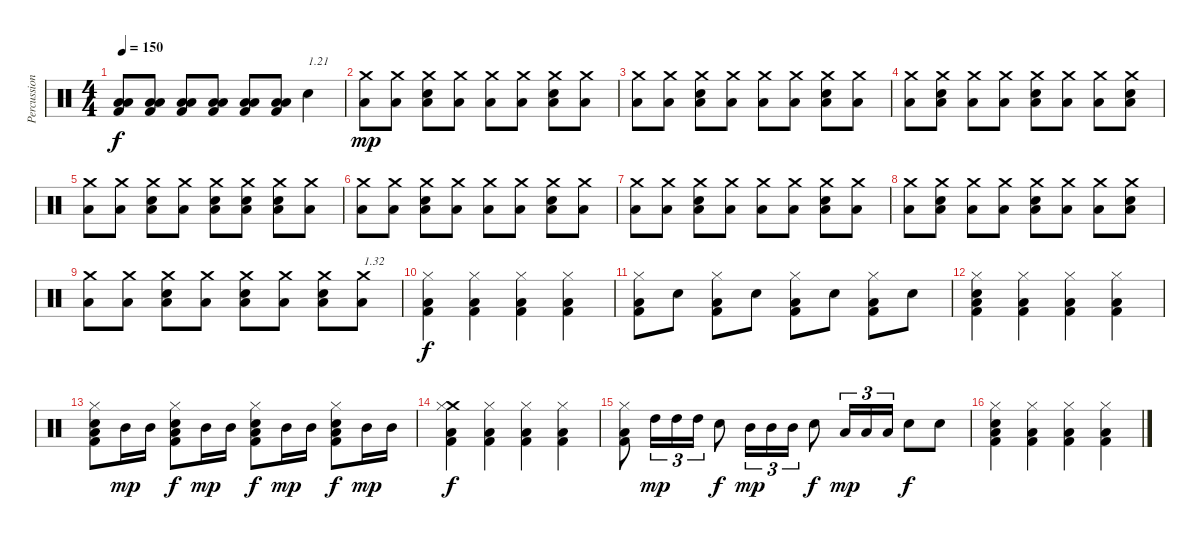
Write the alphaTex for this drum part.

\track ("Percussions" "Percussion") {instrument percussion}
\staff {score}
\articulation defaults
\ts (4 4)
\tempo 150
\clef neutral
\ks c
("Kick (hit) 2" "Low Floor Tom (hit)" "Low Tom (hit)").8{dy f} ("Kick (hit) 2" "Low Floor Tom (hit)" "Low Tom (hit)").8 ("Kick (hit) 2" "Low Floor Tom (hit)" "Low Tom (hit)").8 ("Kick (hit) 2" "Low Floor Tom (hit)" "Low Tom (hit)").8 ("Kick (hit) 2" "Low Floor Tom (hit)" "Low Tom (hit)").8 ("Kick (hit) 2" "Low Floor Tom (hit)" "Low Tom (hit)").8 "Snare (hit) 2".4{txt "1.21"} |
("Low Floor Tom (hit)" "Crash medium (hit)").8{dy mp} ("Low Floor Tom (hit)" "Crash medium (hit)").8 ("Low Floor Tom (hit)" "Snare (hit) 2" "Crash medium (hit)").8 ("Low Floor Tom (hit)" "Crash medium (hit)").8 ("Low Floor Tom (hit)" "Crash medium (hit)").8 ("Low Floor Tom (hit)" "Crash medium (hit)").8 ("Low Floor Tom (hit)" "Snare (hit) 2" "Crash medium (hit)").8 ("Low Floor Tom (hit)" "Crash medium (hit)").8 |
("Low Floor Tom (hit)" "Crash medium (hit)").8 ("Low Floor Tom (hit)" "Crash medium (hit)").8 ("Low Floor Tom (hit)" "Snare (hit) 2" "Crash medium (hit)").8 ("Low Floor Tom (hit)" "Crash medium (hit)").8 ("Low Floor Tom (hit)" "Crash medium (hit)").8 ("Low Floor Tom (hit)" "Crash medium (hit)").8 ("Low Floor Tom (hit)" "Snare (hit) 2" "Crash medium (hit)").8 ("Low Floor Tom (hit)" "Crash medium (hit)").8 |
("Low Floor Tom (hit)" "Crash medium (hit)").8 ("Low Floor Tom (hit)" "Snare (hit) 2" "Crash medium (hit)").8 ("Low Floor Tom (hit)" "Crash medium (hit)").8 ("Low Floor Tom (hit)" "Crash medium (hit)").8 ("Low Floor Tom (hit)" "Snare (hit) 2" "Crash medium (hit)").8 ("Low Floor Tom (hit)" "Crash medium (hit)").8 ("Low Floor Tom (hit)" "Crash medium (hit)").8 ("Low Floor Tom (hit)" "Snare (hit) 2" "Crash medium (hit)").8 |
("Low Floor Tom (hit)" "Crash medium (hit)").8 ("Low Floor Tom (hit)" "Crash medium (hit)").8 ("Low Floor Tom (hit)" "Snare (hit) 2" "Crash medium (hit)").8 ("Low Floor Tom (hit)" "Crash medium (hit)").8 ("Low Floor Tom (hit)" "Snare (hit) 2" "Crash medium (hit)").8 ("Low Floor Tom (hit)" "Snare (hit) 2" "Crash medium (hit)").8 ("Low Floor Tom (hit)" "Snare (hit) 2" "Crash medium (hit)").8 ("Low Floor Tom (hit)" "Crash medium (hit)").8 |
("Low Floor Tom (hit)" "Crash medium (hit)").8 ("Low Floor Tom (hit)" "Crash medium (hit)").8 ("Low Floor Tom (hit)" "Snare (hit) 2" "Crash medium (hit)").8 ("Low Floor Tom (hit)" "Crash medium (hit)").8 ("Low Floor Tom (hit)" "Crash medium (hit)").8 ("Low Floor Tom (hit)" "Crash medium (hit)").8 ("Low Floor Tom (hit)" "Snare (hit) 2" "Crash medium (hit)").8 ("Low Floor Tom (hit)" "Crash medium (hit)").8 |
("Low Floor Tom (hit)" "Crash medium (hit)").8 ("Low Floor Tom (hit)" "Crash medium (hit)").8 ("Low Floor Tom (hit)" "Snare (hit) 2" "Crash medium (hit)").8 ("Low Floor Tom (hit)" "Crash medium (hit)").8 ("Low Floor Tom (hit)" "Crash medium (hit)").8 ("Low Floor Tom (hit)" "Crash medium (hit)").8 ("Low Floor Tom (hit)" "Snare (hit) 2" "Crash medium (hit)").8 ("Low Floor Tom (hit)" "Crash medium (hit)").8 |
("Low Floor Tom (hit)" "Crash medium (hit)").8 ("Low Floor Tom (hit)" "Snare (hit) 2" "Crash medium (hit)").8 ("Low Floor Tom (hit)" "Crash medium (hit)").8 ("Low Floor Tom (hit)" "Crash medium (hit)").8 ("Low Floor Tom (hit)" "Snare (hit) 2" "Crash medium (hit)").8 ("Low Floor Tom (hit)" "Crash medium (hit)").8 ("Low Floor Tom (hit)" "Crash medium (hit)").8 ("Low Floor Tom (hit)" "Snare (hit) 2" "Crash medium (hit)").8 |
("Low Floor Tom (hit)" "Crash medium (hit)").8 ("Low Floor Tom (hit)" "Crash medium (hit)").8 ("Low Floor Tom (hit)" "Snare (hit) 2" "Crash medium (hit)").8 ("Low Floor Tom (hit)" "Crash medium (hit)").8 ("Low Floor Tom (hit)" "Snare (hit) 2" "Crash medium (hit)").8 ("Low Floor Tom (hit)" "Crash medium (hit)").8 ("Low Floor Tom (hit)" "Snare (hit) 2" "Crash medium (hit)").8 ("Low Floor Tom (hit)" "Crash medium (hit)").8{txt "1.32"} |
("Kick (hit) 2" "Low Floor Tom (hit)" "Hi-Hat (closed)").4{dy f} ("Kick (hit) 2" "Low Floor Tom (hit)" "Hi-Hat (closed)").4 ("Kick (hit) 2" "Low Floor Tom (hit)" "Hi-Hat (closed)").4 ("Kick (hit) 2" "Low Floor Tom (hit)" "Hi-Hat (closed)").4 |
("Kick (hit) 2" "Low Floor Tom (hit)" "Hi-Hat (closed)").8 "Snare (hit) 2".8 ("Kick (hit) 2" "Low Floor Tom (hit)" "Hi-Hat (closed)").8 "Snare (hit) 2".8 ("Kick (hit) 2" "Low Floor Tom (hit)" "Hi-Hat (closed)").8 "Snare (hit) 2".8 ("Kick (hit) 2" "Low Floor Tom (hit)" "Hi-Hat (closed)").8 "Snare (hit) 2".8 |
("Kick (hit) 2" "Low Floor Tom (hit)" "Snare (hit) 2" "Hi-Hat (closed)").4 ("Kick (hit) 2" "Low Floor Tom (hit)" "Hi-Hat (closed)").4 ("Kick (hit) 2" "Low Floor Tom (hit)" "Hi-Hat (closed)").4 ("Kick (hit) 2" "Low Floor Tom (hit)" "Hi-Hat (closed)").4 |
("Kick (hit) 2" "Low Floor Tom (hit)" "Snare (hit) 2" "Hi-Hat (closed)").8 "Mid Tom (hit)".16{dy mp} "Mid Tom (hit)".16 ("Kick (hit) 2" "Low Floor Tom (hit)" "Snare (hit) 2" "Hi-Hat (closed)").8{dy f} "Mid Tom (hit)".16{dy mp} "Mid Tom (hit)".16 ("Kick (hit) 2" "Low Floor Tom (hit)" "Snare (hit) 2" "Hi-Hat (closed)").8{dy f} "Mid Tom (hit)".16{dy mp} "Mid Tom (hit)".16 ("Kick (hit) 2" "Low Floor Tom (hit)" "Snare (hit) 2" "Hi-Hat (closed)").8{dy f} "Mid Tom (hit)".16{dy mp} "Mid Tom (hit)".16 |
("Kick (hit) 2" "Low Floor Tom (hit)" "Crash medium (hit)" "Hi-Hat (closed)").4{dy f} ("Kick (hit) 2" "Low Floor Tom (hit)" "Hi-Hat (closed)").4 ("Kick (hit) 2" "Low Floor Tom (hit)" "Hi-Hat (closed)").4 ("Kick (hit) 2" "Low Floor Tom (hit)" "Hi-Hat (closed)").4 |
("Kick (hit) 2" "Low Floor Tom (hit)" "Hi-Hat (closed)").8 "High Tom (hit)".16{tu (3 2) dy mp} "High Tom (hit)".16{tu (3 2)} "High Tom (hit)".16{tu (3 2)} "Snare (hit) 2".8{dy f} "Mid Tom (hit)".16{tu (3 2) dy mp} "Mid Tom (hit)".16{tu (3 2)} "Mid Tom (hit)".16{tu (3 2)} "Snare (hit) 2".8{dy f} "Low Tom (hit)".16{tu (3 2) dy mp} "Low Tom (hit)".16{tu (3 2)} "Low Tom (hit)".16{tu (3 2)} "Snare (hit) 2".8{dy f} "Snare (hit) 2".8 |
("Kick (hit) 2" "Low Floor Tom (hit)" "Snare (hit) 2" "Hi-Hat (closed)").4 ("Kick (hit) 2" "Low Floor Tom (hit)" "Hi-Hat (closed)").4 ("Kick (hit) 2" "Low Floor Tom (hit)" "Hi-Hat (closed)").4 ("Kick (hit) 2" "Low Floor Tom (hit)" "Hi-Hat (closed)").4
